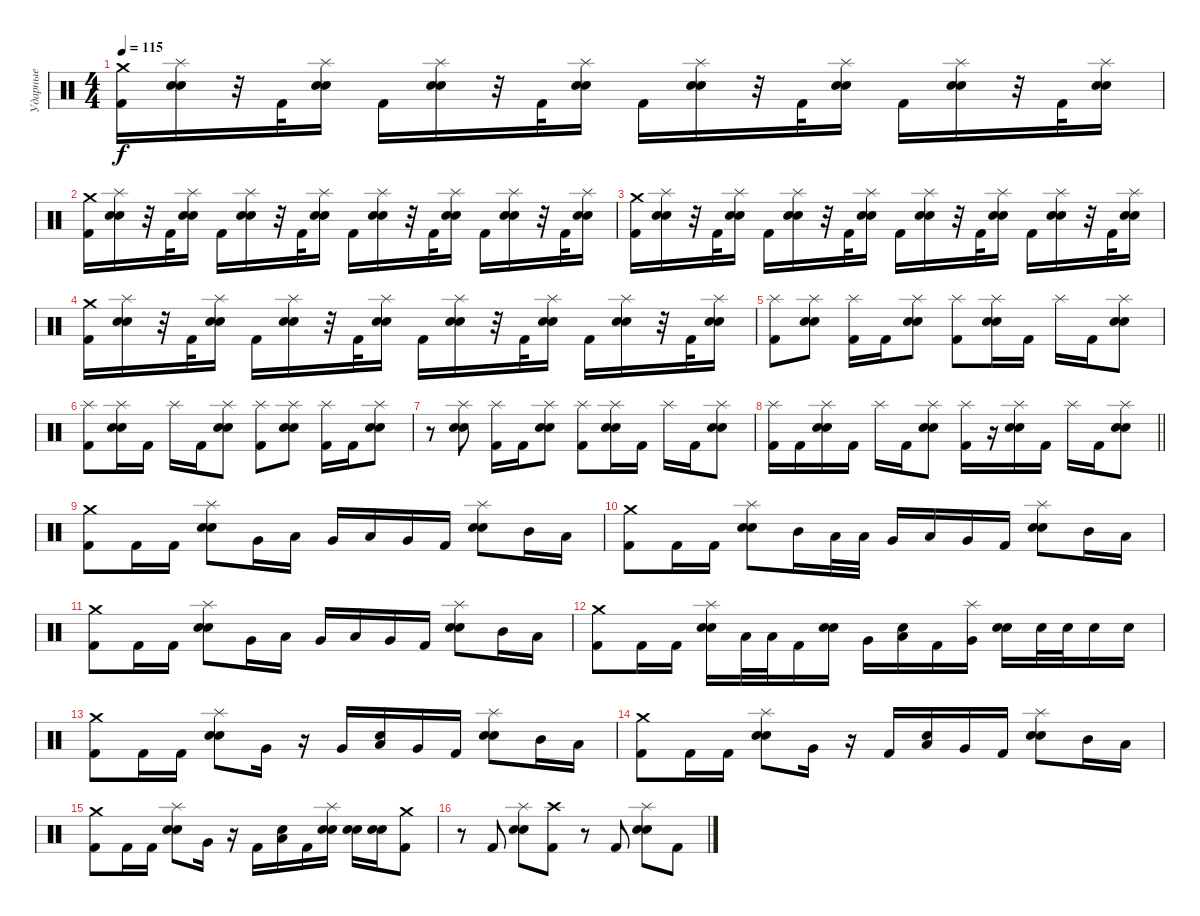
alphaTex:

\track ("Ударные" "Ударные") {instrument percussion}
\staff {score}
\articulation defaults
\ts (4 4)
\tempo 115
\clef neutral
\ks c
("Crash medium (hit)" "Kick (hit) 2").16{dy f} ("Splash (hit)" "Electric Snare (hit)" "Snare (hit) 2").16 r.32 "Kick (hit) 2".32 ("Splash (hit)" "Electric Snare (hit)" "Snare (hit) 2").16 "Kick (hit) 2".16 ("Splash (hit)" "Electric Snare (hit)" "Snare (hit) 2").16 r.32 "Kick (hit) 2".32 ("Splash (hit)" "Electric Snare (hit)" "Snare (hit) 2").16 "Kick (hit) 2".16 ("Splash (hit)" "Electric Snare (hit)" "Snare (hit) 2").16 r.32 "Kick (hit) 2".32 ("Splash (hit)" "Electric Snare (hit)" "Snare (hit) 2").16 "Kick (hit) 2".16 ("Splash (hit)" "Electric Snare (hit)" "Snare (hit) 2").16 r.32 "Kick (hit) 2".32 ("Splash (hit)" "Electric Snare (hit)" "Snare (hit) 2").16 |
("Crash medium (hit)" "Kick (hit) 2").16 ("Splash (hit)" "Electric Snare (hit)" "Snare (hit) 2").16 r.32 "Kick (hit) 2".32 ("Splash (hit)" "Electric Snare (hit)" "Snare (hit) 2").16 "Kick (hit) 2".16 ("Splash (hit)" "Electric Snare (hit)" "Snare (hit) 2").16 r.32 "Kick (hit) 2".32 ("Splash (hit)" "Electric Snare (hit)" "Snare (hit) 2").16 "Kick (hit) 2".16 ("Splash (hit)" "Electric Snare (hit)" "Snare (hit) 2").16 r.32 "Kick (hit) 2".32 ("Splash (hit)" "Electric Snare (hit)" "Snare (hit) 2").16 "Kick (hit) 2".16 ("Splash (hit)" "Electric Snare (hit)" "Snare (hit) 2").16 r.32 "Kick (hit) 2".32 ("Splash (hit)" "Electric Snare (hit)" "Snare (hit) 2").16 |
("Crash medium (hit)" "Kick (hit) 2").16 ("Splash (hit)" "Electric Snare (hit)" "Snare (hit) 2").16 r.32 "Kick (hit) 2".32 ("Splash (hit)" "Electric Snare (hit)" "Snare (hit) 2").16 "Kick (hit) 2".16 ("Splash (hit)" "Electric Snare (hit)" "Snare (hit) 2").16 r.32 "Kick (hit) 2".32 ("Splash (hit)" "Electric Snare (hit)" "Snare (hit) 2").16 "Kick (hit) 2".16 ("Splash (hit)" "Electric Snare (hit)" "Snare (hit) 2").16 r.32 "Kick (hit) 2".32 ("Splash (hit)" "Electric Snare (hit)" "Snare (hit) 2").16 "Kick (hit) 2".16 ("Splash (hit)" "Electric Snare (hit)" "Snare (hit) 2").16 r.32 "Kick (hit) 2".32 ("Splash (hit)" "Electric Snare (hit)" "Snare (hit) 2").16 |
("Crash medium (hit)" "Kick (hit) 2").16 ("Splash (hit)" "Electric Snare (hit)" "Snare (hit) 2").16 r.32 "Kick (hit) 2".32 ("Splash (hit)" "Electric Snare (hit)" "Snare (hit) 2").16 "Kick (hit) 2".16 ("Splash (hit)" "Electric Snare (hit)" "Snare (hit) 2").16 r.32 "Kick (hit) 2".32 ("Splash (hit)" "Electric Snare (hit)" "Snare (hit) 2").16 "Kick (hit) 2".16 ("Splash (hit)" "Electric Snare (hit)" "Snare (hit) 2").16 r.32 "Kick (hit) 2".32 ("Splash (hit)" "Electric Snare (hit)" "Snare (hit) 2").16 "Kick (hit) 2".16 ("Splash (hit)" "Electric Snare (hit)" "Snare (hit) 2").16 r.32 "Kick (hit) 2".32 ("Splash (hit)" "Electric Snare (hit)" "Snare (hit) 2").16 |
("Splash (hit)" "Kick (hit) 2").8 ("Splash (hit)" "Electric Snare (hit)" "Snare (hit) 2").8 ("Splash (hit)" "Kick (hit) 2").16 "Kick (hit) 2".16 ("Splash (hit)" "Electric Snare (hit)" "Snare (hit) 2").8 ("Splash (hit)" "Kick (hit) 2").8 ("Splash (hit)" "Electric Snare (hit)" "Snare (hit) 2").16 "Kick (hit) 2".16 "Splash (hit)".16 "Kick (hit) 2".16 ("Splash (hit)" "Electric Snare (hit)" "Snare (hit) 2").8 |
("Splash (hit)" "Kick (hit) 2").8 ("Splash (hit)" "Electric Snare (hit)" "Snare (hit) 2").16 "Kick (hit) 2".16 "Splash (hit)".16 "Kick (hit) 2".16 ("Splash (hit)" "Electric Snare (hit)" "Snare (hit) 2").8 ("Splash (hit)" "Kick (hit) 2").8 ("Splash (hit)" "Electric Snare (hit)" "Snare (hit) 2").8 ("Splash (hit)" "Kick (hit) 2").16 "Kick (hit) 2".16 ("Splash (hit)" "Electric Snare (hit)" "Snare (hit) 2").8 |
r.8 ("Splash (hit)" "Electric Snare (hit)" "Snare (hit) 2").8 ("Splash (hit)" "Kick (hit) 2").16 "Kick (hit) 2".16 ("Splash (hit)" "Electric Snare (hit)" "Snare (hit) 2").8 ("Splash (hit)" "Kick (hit) 2").8 ("Splash (hit)" "Electric Snare (hit)" "Snare (hit) 2").16 "Kick (hit) 2".16 "Splash (hit)".16 "Kick (hit) 2".16 ("Splash (hit)" "Electric Snare (hit)" "Snare (hit) 2").8 |
\barLineRight lightlight
("Splash (hit)" "Kick (hit) 2").16 "Kick (hit) 2".16 ("Splash (hit)" "Electric Snare (hit)" "Snare (hit) 2").16 "Kick (hit) 2".16 "Splash (hit)".16 "Kick (hit) 2".16 ("Splash (hit)" "Electric Snare (hit)" "Snare (hit) 2").8 ("Splash (hit)" "Kick (hit) 2").16 r.16 ("Splash (hit)" "Electric Snare (hit)" "Snare (hit) 2").16 "Kick (hit) 2".16 "Splash (hit)".16 "Kick (hit) 2".16 ("Splash (hit)" "Electric Snare (hit)" "Snare (hit) 2").8 |
("Crash medium (hit)" "Kick (hit) 2").8 "Kick (hit) 2".16 "Kick (hit) 2".16 ("Splash (hit)" "Electric Snare (hit)" "Snare (hit) 2").8 "Very Low Tom (hit)".16 "Low Tom (hit)".16 "Very Low Tom (hit)".16 "Low Tom (hit)".16 "Very Low Tom (hit)".16 "Kick (hit) 2".16 ("Splash (hit)" "Electric Snare (hit)" "Snare (hit) 2").8 "Mid Tom (hit)".16 "Low Tom (hit)".16 |
("Crash medium (hit)" "Kick (hit) 2").8 "Kick (hit) 2".16 "Kick (hit) 2".16 ("Splash (hit)" "Electric Snare (hit)" "Snare (hit) 2").8 "Mid Tom (hit)".16 "Low Tom (hit)".32 "Low Tom (hit)".32 "Very Low Tom (hit)".16 "Low Tom (hit)".16 "Very Low Tom (hit)".16 "Kick (hit) 2".16 ("Splash (hit)" "Electric Snare (hit)" "Snare (hit) 2").8 "Mid Tom (hit)".16 "Low Tom (hit)".16 |
("Crash medium (hit)" "Kick (hit) 2").8 "Kick (hit) 2".16 "Kick (hit) 2".16 ("Splash (hit)" "Electric Snare (hit)" "Snare (hit) 2").8 "Very Low Tom (hit)".16 "Low Tom (hit)".16 "Very Low Tom (hit)".16 "Low Tom (hit)".16 "Very Low Tom (hit)".16 "Kick (hit) 2".16 ("Splash (hit)" "Electric Snare (hit)" "Snare (hit) 2").8 "Mid Tom (hit)".16 "Low Tom (hit)".16 |
("Crash medium (hit)" "Kick (hit) 2").8 "Kick (hit) 2".16 "Kick (hit) 2".16 ("Splash (hit)" "Electric Snare (hit)" "Snare (hit) 2").16 "Low Tom (hit)".32 "Low Tom (hit)".32 "Kick (hit) 2".16 ("Electric Snare (hit)" "Snare (hit) 2").16 "Very Low Tom (hit)".16 ("Electric Snare (hit)" "Low Tom (hit)").16 "Kick (hit) 2".16 ("Splash (hit)" "Very Low Tom (hit)").16 ("Electric Snare (hit)" "Snare (hit) 2").16 "Electric Snare (hit)".32 "Electric Snare (hit)".32 "Electric Snare (hit)".16 "Electric Snare (hit)".16 |
("Crash medium (hit)" "Kick (hit) 2").8 "Kick (hit) 2".16 "Kick (hit) 2".16 ("Splash (hit)" "Electric Snare (hit)" "Snare (hit) 2").8 "Very Low Tom (hit)".16 r.16 "Very Low Tom (hit)".16 ("Electric Snare (hit)" "Low Tom (hit)").16 "Very Low Tom (hit)".16 "Kick (hit) 2".16 ("Splash (hit)" "Electric Snare (hit)" "Snare (hit) 2").8 "Mid Tom (hit)".16 "Low Tom (hit)".16 |
("Crash medium (hit)" "Kick (hit) 2").8 "Kick (hit) 2".16 "Kick (hit) 2".16 ("Splash (hit)" "Electric Snare (hit)" "Snare (hit) 2").8 "Very Low Tom (hit)".16 r.16 "Kick (hit) 2".16 ("Electric Snare (hit)" "Low Tom (hit)").16 "Very Low Tom (hit)".16 "Kick (hit) 2".16 ("Splash (hit)" "Electric Snare (hit)" "Snare (hit) 2").8 "Mid Tom (hit)".16 "Low Tom (hit)".16 |
("Crash medium (hit)" "Kick (hit) 2").8 "Kick (hit) 2".16 "Kick (hit) 2".16 ("Splash (hit)" "Electric Snare (hit)" "Snare (hit) 2").8 "Very Low Tom (hit)".16 r.16 "Kick (hit) 2".16 ("Electric Snare (hit)" "Low Tom (hit)").16 "Kick (hit) 2".16 ("Splash (hit)" "Electric Snare (hit)" "Snare (hit) 2").16 ("Electric Snare (hit)" "Snare (hit) 2").16 ("Electric Snare (hit)" "Snare (hit) 2").16 ("Crash medium (hit)" "Kick (hit) 2").8 |
r.8 "Kick (hit) 2".8 ("Splash (hit)" "Electric Snare (hit)" "Snare (hit) 2").8 ("Crash high (hit)" "Kick (hit) 2").8 r.8 "Kick (hit) 2".8 ("Splash (hit)" "Electric Snare (hit)" "Snare (hit) 2").8 "Kick (hit) 2".8
